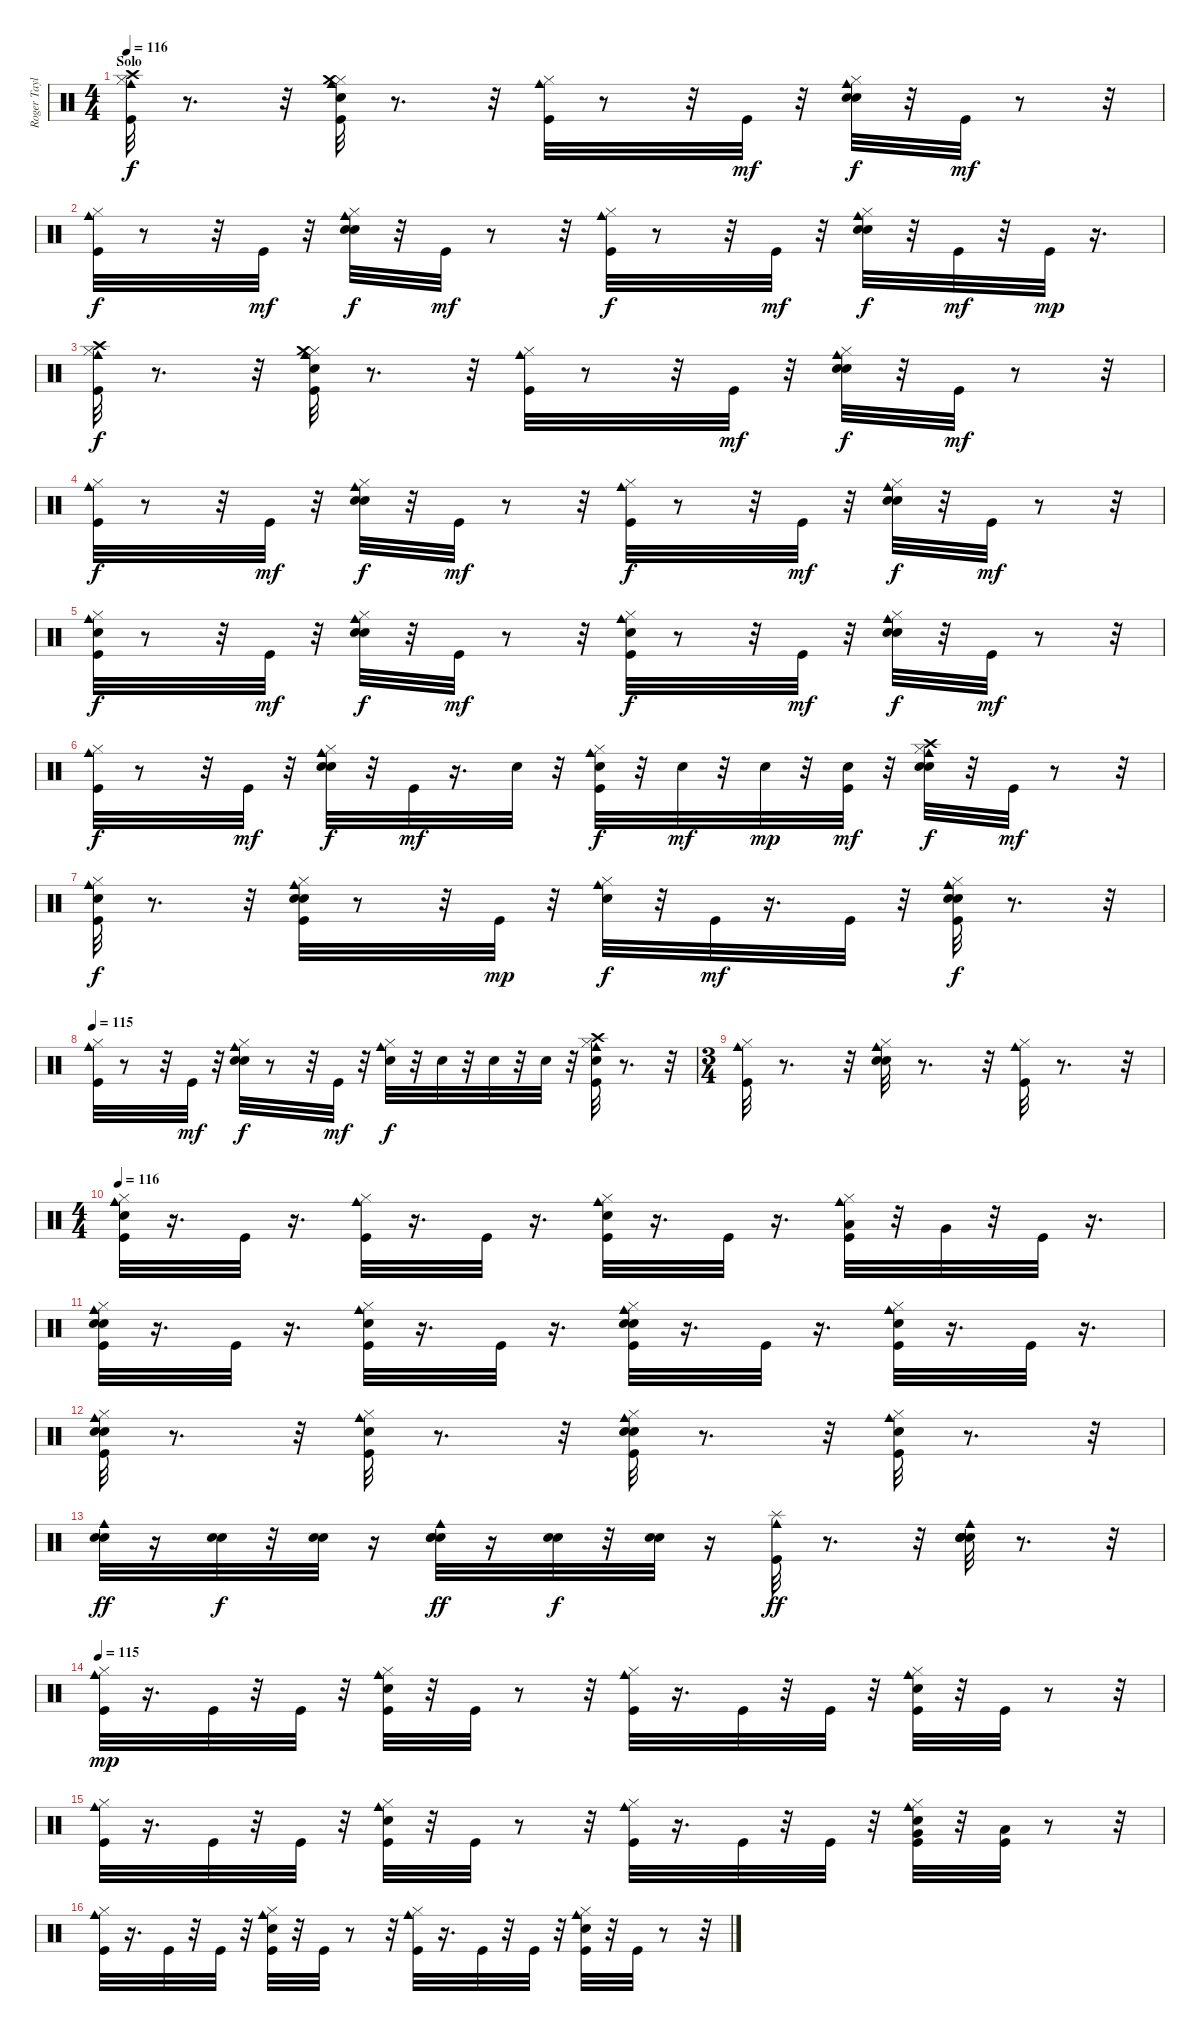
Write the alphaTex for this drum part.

\track ("Roger Taylor" "Roger Tayl") {instrument percussion}
\staff {score}
\articulation defaults
\ts (4 4)
\section ("" "Solo")
\tempo 116
\clef neutral
\ks c
("Cowbell medium (hit)" "Hi-Hat (closed)" "Kick (hit)" "Crash high (hit)").32{dy f} r.8{d} r.32 ("Snare (hit)" "Cowbell medium (hit)" "Hi-Hat (closed)" "Kick (hit)" "Crash medium (hit)").32 r.8{d} r.32 ("Cowbell medium (hit)" "Hi-Hat (closed)" "Kick (hit)").32 r.8 r.32 "Kick (hit)".32{dy mf} r.32 ("Snare (hit)" "Cowbell medium (hit)" "Hi-Hat (closed)" "Snare (hit) 2").32{dy f} r.32 "Kick (hit)".32{dy mf} r.8 r.32 |
("Hi-Hat (closed)" "Kick (hit)" "Cowbell medium (hit)").32{dy f} r.8 r.32 "Kick (hit)".32{dy mf} r.32 ("Snare (hit)" "Cowbell medium (hit)" "Hi-Hat (closed)" "Snare (hit) 2").32{dy f} r.32 "Kick (hit)".32{dy mf} r.8 r.32 ("Cowbell medium (hit)" "Hi-Hat (closed)" "Kick (hit)").32{dy f} r.8 r.32 "Kick (hit)".32{dy mf} r.32 ("Snare (hit)" "Cowbell medium (hit)" "Hi-Hat (closed)" "Snare (hit) 2").32{dy f} r.32 "Kick (hit)".32{dy mf} r.32 "Kick (hit)".32{dy mp} r.16{d} |
("Cowbell medium (hit)" "Hi-Hat (closed)" "Kick (hit)" "Crash high (hit)").32{dy f} r.8{d} r.32 ("Snare (hit)" "Cowbell medium (hit)" "Hi-Hat (closed)" "Kick (hit)" "Crash medium (hit)").32 r.8{d} r.32 ("Cowbell medium (hit)" "Hi-Hat (closed)" "Kick (hit)").32 r.8 r.32 "Kick (hit)".32{dy mf} r.32 ("Snare (hit)" "Cowbell medium (hit)" "Hi-Hat (closed)" "Snare (hit) 2").32{dy f} r.32 "Kick (hit)".32{dy mf} r.8 r.32 |
("Hi-Hat (closed)" "Kick (hit)" "Cowbell medium (hit)").32{dy f} r.8 r.32 "Kick (hit)".32{dy mf} r.32 ("Snare (hit)" "Cowbell medium (hit)" "Hi-Hat (closed)" "Snare (hit) 2").32{dy f} r.32 "Kick (hit)".32{dy mf} r.8 r.32 ("Cowbell medium (hit)" "Hi-Hat (closed)" "Kick (hit)").32{dy f} r.8 r.32 "Kick (hit)".32{dy mf} r.32 ("Snare (hit)" "Cowbell medium (hit)" "Hi-Hat (closed)" "Snare (hit) 2").32{dy f} r.32 "Kick (hit)".32{dy mf} r.8 r.32 |
("Cowbell medium (hit)" "Hi-Hat (closed)" "Kick (hit)" "Hand Clap (hit)").32{dy f} r.8 r.32 "Kick (hit)".32{dy mf} r.32 ("Cowbell medium (hit)" "Hi-Hat (closed)" "Snare (hit) 2" "Snare (hit)").32{dy f} r.32 "Kick (hit)".32{dy mf} r.8 r.32 ("Cowbell medium (hit)" "Hi-Hat (closed)" "Kick (hit)" "Hand Clap (hit)").32{dy f} r.8 r.32 "Kick (hit)".32{dy mf} r.32 ("Cowbell medium (hit)" "Hi-Hat (closed)" "Snare (hit) 2" "Snare (hit)").32{dy f} r.32 "Kick (hit)".32{dy mf} r.8 r.32 |
("Cowbell medium (hit)" "Kick (hit)" "Hi-Hat (closed)").32{dy f} r.8 r.32 "Kick (hit)".32{dy mf} r.32 ("Cowbell medium (hit)" "Snare (hit) 2" "Snare (hit)" "Hi-Hat (closed)").32{dy f} r.32 "Kick (hit)".32{dy mf} r.16{d} "Snare (hit) 2".32 r.32 ("Cowbell medium (hit)" "Hi-Hat (closed)" "Kick (hit)" "Snare (hit) 2").32{dy f} r.32 "Snare (hit) 2".32{dy mf} r.32 "Snare (hit) 2".32{dy mp} r.32 ("Snare (hit) 2" "Kick (hit)").32{dy mf} r.32 ("Snare (hit)" "Crash high (hit)" "Cowbell medium (hit)" "Hi-Hat (closed)" "Snare (hit) 2").32{dy f} r.32 "Kick (hit)".32{dy mf} r.8 r.32 |
("Cowbell medium (hit)" "Hi-Hat (closed)" "Kick (hit)" "Hand Clap (hit)").32{dy f} r.8{d} r.32 ("Cowbell medium (hit)" "Hi-Hat (closed)" "Snare (hit) 2" "Kick (hit)" "Snare (hit)").32 r.8 r.32 "Kick (hit)".32{dy mp} r.32 ("Cowbell medium (hit)" "Hi-Hat (closed)" "Hand Clap (hit)").32{dy f} r.32 "Kick (hit)".32{dy mf} r.16{d} "Kick (hit)".32 r.32 ("Cowbell medium (hit)" "Hi-Hat (closed)" "Snare (hit) 2" "Kick (hit)" "Snare (hit)").32{dy f} r.8{d} r.32 |
\tempo 115
("Hi-Hat (closed)" "Cowbell medium (hit)" "Kick (hit)").32 r.8 r.32 "Kick (hit)".32{dy mf} r.32 ("Hi-Hat (closed)" "Snare (hit)" "Snare (hit) 2" "Cowbell medium (hit)").32{dy f} r.8 r.32 "Kick (hit)".32{dy mf} r.32 ("Hi-Hat (closed)" "Cowbell medium (hit)" "Snare (hit) 2").32{dy f} r.32 "Snare (hit) 2".32 r.32 "Snare (hit) 2".32 r.32 "Snare (hit) 2".32 r.32 ("Hi-Hat (closed)" "Snare (hit)" "Cowbell medium (hit)" "Crash high (hit)" "Kick (hit)").32 r.8{d} r.32 |
\ts (3 4)
("Cowbell medium (hit)" "Hi-Hat (closed)" "Kick (hit)").32 r.8{d} r.32 ("Cowbell medium (hit)" "Hi-Hat (closed)" "Snare (hit) 2" "Snare (hit)").32 r.8{d} r.32 ("Cowbell medium (hit)" "Hi-Hat (closed)" "Kick (hit)").32 r.8{d} r.32 |
\ts (4 4)
\tempo 116
("Hi-Hat (closed)" "Kick (hit)" "Cowbell medium (hit)" "Snare (hit)").32 r.16{d} "Kick (hit)".32 r.16{d} ("Hi-Hat (closed)" "Cowbell medium (hit)" "Kick (hit)").32 r.16{d} "Kick (hit)".32 r.16{d} ("Snare (hit)" "Hi-Hat (closed)" "Cowbell medium (hit)" "Kick (hit)").32 r.16{d} "Kick (hit)".32 r.16{d} ("Hi-Hat (closed)" "Cowbell medium (hit)" "Kick (hit)" "Low Tom (hit)").32 r.32 "Very Low Tom (hit)".32 r.32 "Kick (hit)".32 r.16{d} |
("Snare (hit)" "Cowbell medium (hit)" "Hi-Hat (closed)" "Snare (hit) 2" "Kick (hit)").32 r.16{d} "Kick (hit)".32 r.16{d} ("Cowbell medium (hit)" "Hi-Hat (closed)" "Snare (hit) 2" "Kick (hit)").32 r.16{d} "Kick (hit)".32 r.16{d} ("Snare (hit)" "Cowbell medium (hit)" "Hi-Hat (closed)" "Snare (hit) 2" "Kick (hit)").32 r.16{d} "Kick (hit)".32 r.16{d} ("Cowbell medium (hit)" "Hi-Hat (closed)" "Snare (hit) 2" "Kick (hit)").32 r.16{d} "Kick (hit)".32 r.16{d} |
("Cowbell medium (hit)" "Snare (hit)" "Hi-Hat (closed)" "Kick (hit)" "Snare (hit) 2").32 r.8{d} r.32 ("Cowbell medium (hit)" "Hi-Hat (closed)" "Kick (hit)" "Snare (hit) 2").32 r.8{d} r.32 ("Cowbell medium (hit)" "Snare (hit)" "Hi-Hat (closed)" "Kick (hit)" "Snare (hit) 2").32 r.8{d} r.32 ("Cowbell medium (hit)" "Kick (hit)" "Hi-Hat (closed)" "Snare (hit) 2").32 r.8{d} r.32 |
("Electric Snare (hit)" "Snare (hit) 2" "Cowbell medium (hit)").32{dy ff} r.16 ("Electric Snare (hit)" "Snare (hit) 2").32{dy f} r.32 ("Electric Snare (hit)" "Snare (hit) 2").32 r.16 ("Snare (hit)" "Cowbell medium (hit)" "Electric Snare (hit)" "Snare (hit) 2").32{dy ff} r.16 ("Electric Snare (hit)" "Snare (hit) 2").32{dy f} r.32 ("Electric Snare (hit)" "Snare (hit) 2").32 r.16 ("Cowbell medium (hit)" "Splash (hit)" "Kick (hit)").32{dy ff} r.8{d} r.32 ("Hand Clap (hit)" "Snare (hit)" "Cowbell medium (hit)" "Electric Snare (hit)" "Snare (hit) 2").32 r.8{d} r.32 |
\tempo 115
("Hi-Hat (closed)" "Cowbell medium (hit)" "Kick (hit)").32{dy mp} r.16{d} "Kick (hit)".32 r.32 "Kick (hit)".32 r.32 ("Hi-Hat (closed)" "Snare (hit)" "Cowbell medium (hit)" "Kick (hit)").32 r.32 "Kick (hit)".32 r.8 r.32 ("Hi-Hat (closed)" "Cowbell medium (hit)" "Kick (hit)").32 r.16{d} "Kick (hit)".32 r.32 "Kick (hit)".32 r.32 ("Hi-Hat (closed)" "Hand Clap (hit)" "Cowbell medium (hit)" "Kick (hit)").32 r.32 "Kick (hit)".32 r.8 r.32 |
("Cowbell medium (hit)" "Hi-Hat (closed)" "Kick (hit)").32 r.16{d} "Kick (hit)".32 r.32 "Kick (hit)".32 r.32 ("Cowbell medium (hit)" "Snare (hit)" "Hi-Hat (closed)" "Kick (hit)").32 r.32 "Kick (hit)".32 r.8 r.32 ("Cowbell medium (hit)" "Hi-Hat (closed)" "Kick (hit)").32 r.16{d} "Kick (hit)".32 r.32 "Kick (hit)".32 r.32 ("Very Low Tom (hit)" "Cowbell medium (hit)" "Snare (hit)" "Hi-Hat (closed)" "Kick (hit)").32 r.32 ("Low Floor Tom (hit)" "Kick (hit)").32 r.8 r.32 |
("Cowbell medium (hit)" "Hi-Hat (closed)" "Kick (hit)").32 r.16{d} "Kick (hit)".32 r.32 "Kick (hit)".32 r.32 ("Snare (hit)" "Cowbell medium (hit)" "Hi-Hat (closed)" "Kick (hit)").32 r.32 "Kick (hit)".32 r.8 r.32 ("Cowbell medium (hit)" "Hi-Hat (closed)" "Kick (hit)").32 r.16{d} "Kick (hit)".32 r.32 "Kick (hit)".32 r.32 ("Hand Clap (hit)" "Cowbell medium (hit)" "Hi-Hat (closed)" "Kick (hit)").32 r.32 "Kick (hit)".32 r.8 r.32
